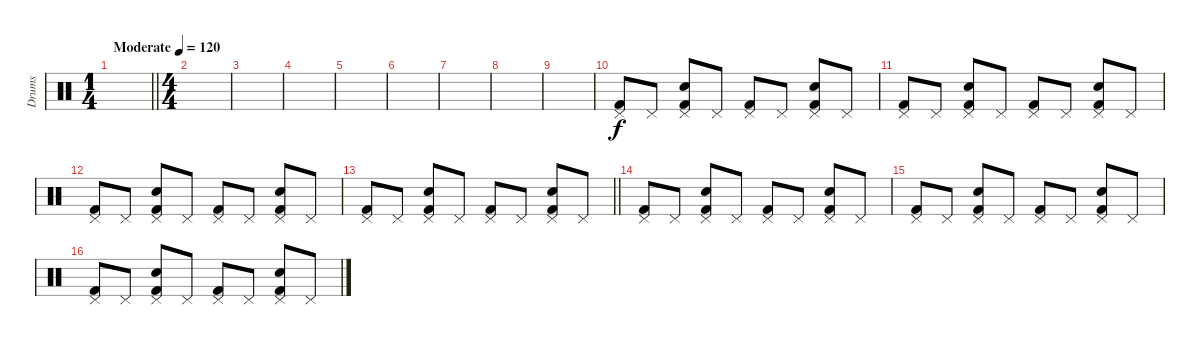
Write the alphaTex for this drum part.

\track ("Drums" "Drums") {instrument percussion}
\staff
\articulation defaults
\ts (1 4)
\tempo (120 "Moderate")
\clef neutral
\barLineRight lightlight
\ks c
|
\ts (4 4)
|
|
|
|
|
|
|
|
("Pedal Hi-Hat (hit)" "Kick (hit) 2").8 "Pedal Hi-Hat (hit)".8 ("Pedal Hi-Hat (hit)" "Electric Snare (hit)" "Kick (hit) 2").8 "Pedal Hi-Hat (hit)".8 ("Pedal Hi-Hat (hit)" "Kick (hit) 2").8 "Pedal Hi-Hat (hit)".8 ("Pedal Hi-Hat (hit)" "Electric Snare (hit)" "Kick (hit) 2").8 "Pedal Hi-Hat (hit)".8 |
("Pedal Hi-Hat (hit)" "Kick (hit) 2").8 "Pedal Hi-Hat (hit)".8 ("Pedal Hi-Hat (hit)" "Electric Snare (hit)" "Kick (hit) 2").8 "Pedal Hi-Hat (hit)".8 ("Pedal Hi-Hat (hit)" "Kick (hit) 2").8 "Pedal Hi-Hat (hit)".8 ("Pedal Hi-Hat (hit)" "Electric Snare (hit)" "Kick (hit) 2").8 "Pedal Hi-Hat (hit)".8 |
("Pedal Hi-Hat (hit)" "Kick (hit) 2").8 "Pedal Hi-Hat (hit)".8 ("Pedal Hi-Hat (hit)" "Electric Snare (hit)" "Kick (hit) 2").8 "Pedal Hi-Hat (hit)".8 ("Pedal Hi-Hat (hit)" "Kick (hit) 2").8 "Pedal Hi-Hat (hit)".8 ("Pedal Hi-Hat (hit)" "Electric Snare (hit)" "Kick (hit) 2").8 "Pedal Hi-Hat (hit)".8 |
\barLineRight lightlight
("Pedal Hi-Hat (hit)" "Kick (hit) 2").8 "Pedal Hi-Hat (hit)".8 ("Pedal Hi-Hat (hit)" "Electric Snare (hit)" "Kick (hit) 2").8 "Pedal Hi-Hat (hit)".8 ("Pedal Hi-Hat (hit)" "Kick (hit) 2").8 "Pedal Hi-Hat (hit)".8 ("Pedal Hi-Hat (hit)" "Electric Snare (hit)" "Kick (hit) 2").8 "Pedal Hi-Hat (hit)".8 |
("Pedal Hi-Hat (hit)" "Kick (hit) 2").8 "Pedal Hi-Hat (hit)".8 ("Pedal Hi-Hat (hit)" "Electric Snare (hit)" "Kick (hit) 2").8 "Pedal Hi-Hat (hit)".8 ("Pedal Hi-Hat (hit)" "Kick (hit) 2").8 "Pedal Hi-Hat (hit)".8 ("Pedal Hi-Hat (hit)" "Electric Snare (hit)" "Kick (hit) 2").8 "Pedal Hi-Hat (hit)".8 |
("Pedal Hi-Hat (hit)" "Kick (hit) 2").8 "Pedal Hi-Hat (hit)".8 ("Pedal Hi-Hat (hit)" "Electric Snare (hit)" "Kick (hit) 2").8 "Pedal Hi-Hat (hit)".8 ("Pedal Hi-Hat (hit)" "Kick (hit) 2").8 "Pedal Hi-Hat (hit)".8 ("Pedal Hi-Hat (hit)" "Electric Snare (hit)" "Kick (hit) 2").8 "Pedal Hi-Hat (hit)".8 |
("Pedal Hi-Hat (hit)" "Kick (hit) 2").8 "Pedal Hi-Hat (hit)".8 ("Pedal Hi-Hat (hit)" "Electric Snare (hit)" "Kick (hit) 2").8 "Pedal Hi-Hat (hit)".8 ("Pedal Hi-Hat (hit)" "Kick (hit) 2").8 "Pedal Hi-Hat (hit)".8 ("Pedal Hi-Hat (hit)" "Electric Snare (hit)" "Kick (hit) 2").8 "Pedal Hi-Hat (hit)".8
